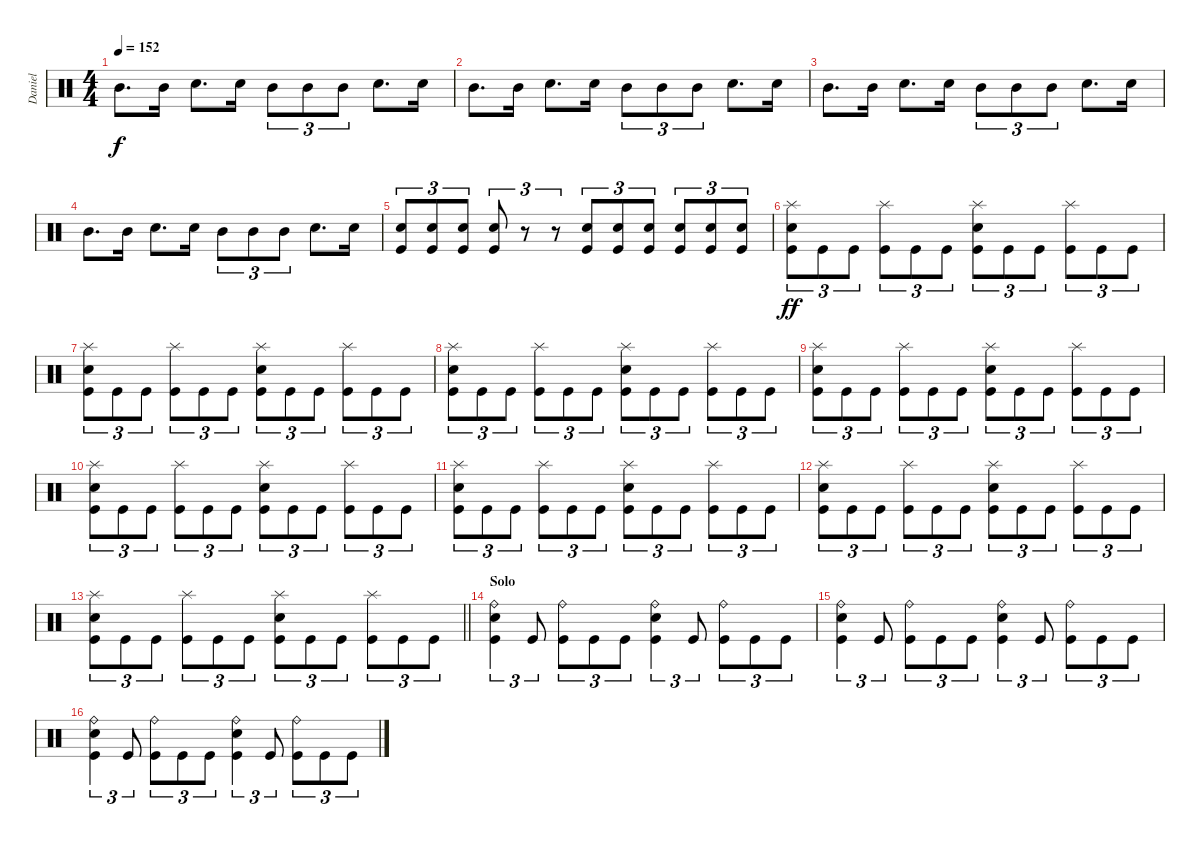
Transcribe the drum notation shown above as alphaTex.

\track ("Daniel" "Daniel") {instrument percussion}
\staff {score}
\articulation defaults
\ts (4 4)
\tempo 152
\clef neutral
\ks c "Mid Tom (hit)".8{d dy f} "Mid Tom (hit)".16 "Snare (hit) 2".8{d} "Snare (hit) 2".16 "Mid Tom (hit)".8{tu (3 2)} "Mid Tom (hit)".8{tu (3 2)} "Mid Tom (hit)".8{tu (3 2)} "Snare (hit) 2".8{d} "Snare (hit) 2".16
|
"Mid Tom (hit)".8{d} "Mid Tom (hit)".16 "Snare (hit) 2".8{d} "Snare (hit) 2".16 "Mid Tom (hit)".8{tu (3 2)} "Mid Tom (hit)".8{tu (3 2)} "Mid Tom (hit)".8{tu (3 2)} "Snare (hit) 2".8{d} "Snare (hit) 2".16 |
"Mid Tom (hit)".8{d} "Mid Tom (hit)".16 "Snare (hit) 2".8{d} "Snare (hit) 2".16 "Mid Tom (hit)".8{tu (3 2)} "Mid Tom (hit)".8{tu (3 2)} "Mid Tom (hit)".8{tu (3 2)} "Snare (hit) 2".8{d} "Snare (hit) 2".16 |
"Mid Tom (hit)".8{d} "Mid Tom (hit)".16 "Snare (hit) 2".8{d} "Snare (hit) 2".16 "Mid Tom (hit)".8{tu (3 2)} "Mid Tom (hit)".8{tu (3 2)} "Mid Tom (hit)".8{tu (3 2)} "Snare (hit) 2".8{d} "Snare (hit) 2".16 |
("Kick (hit)" "Snare (hit) 2").8{tu (3 2)} ("Kick (hit)" "Snare (hit) 2").8{tu (3 2)} ("Kick (hit)" "Snare (hit) 2").8{tu (3 2)} ("Kick (hit)" "Snare (hit) 2").8{tu (3 2)} r.8{tu (3 2)} r.8{tu (3 2)} ("Kick (hit)" "Snare (hit) 2").8{tu (3 2)} ("Kick (hit)" "Snare (hit) 2").8{tu (3 2)} ("Kick (hit)" "Snare (hit) 2").8{tu (3 2)} ("Kick (hit)" "Snare (hit) 2").8{tu (3 2)} ("Kick (hit)" "Snare (hit) 2").8{tu (3 2)} ("Kick (hit)" "Snare (hit) 2").8{tu (3 2)} |
("Kick (hit)" "Snare (hit) 2" "Splash (hit)").8{tu (3 2) dy ff} "Kick (hit)".8{tu (3 2)} "Kick (hit)".8{tu (3 2)} ("Kick (hit)" "Splash (hit)").8{tu (3 2)} "Kick (hit)".8{tu (3 2)} "Kick (hit)".8{tu (3 2)} ("Kick (hit)" "Snare (hit) 2" "Splash (hit)").8{tu (3 2)} "Kick (hit)".8{tu (3 2)} "Kick (hit)".8{tu (3 2)} ("Kick (hit)" "Splash (hit)").8{tu (3 2)} "Kick (hit)".8{tu (3 2)} "Kick (hit)".8{tu (3 2)} |
("Kick (hit)" "Snare (hit) 2" "Splash (hit)").8{tu (3 2)} "Kick (hit)".8{tu (3 2)} "Kick (hit)".8{tu (3 2)} ("Kick (hit)" "Splash (hit)").8{tu (3 2)} "Kick (hit)".8{tu (3 2)} "Kick (hit)".8{tu (3 2)} ("Kick (hit)" "Snare (hit) 2" "Splash (hit)").8{tu (3 2)} "Kick (hit)".8{tu (3 2)} "Kick (hit)".8{tu (3 2)} ("Kick (hit)" "Splash (hit)").8{tu (3 2)} "Kick (hit)".8{tu (3 2)} "Kick (hit)".8{tu (3 2)} |
("Kick (hit)" "Snare (hit) 2" "Splash (hit)").8{tu (3 2)} "Kick (hit)".8{tu (3 2)} "Kick (hit)".8{tu (3 2)} ("Kick (hit)" "Splash (hit)").8{tu (3 2)} "Kick (hit)".8{tu (3 2)} "Kick (hit)".8{tu (3 2)} ("Kick (hit)" "Snare (hit) 2" "Splash (hit)").8{tu (3 2)} "Kick (hit)".8{tu (3 2)} "Kick (hit)".8{tu (3 2)} ("Kick (hit)" "Splash (hit)").8{tu (3 2)} "Kick (hit)".8{tu (3 2)} "Kick (hit)".8{tu (3 2)} |
("Kick (hit)" "Snare (hit) 2" "Splash (hit)").8{tu (3 2)} "Kick (hit)".8{tu (3 2)} "Kick (hit)".8{tu (3 2)} ("Kick (hit)" "Splash (hit)").8{tu (3 2)} "Kick (hit)".8{tu (3 2)} "Kick (hit)".8{tu (3 2)} ("Kick (hit)" "Snare (hit) 2" "Splash (hit)").8{tu (3 2)} "Kick (hit)".8{tu (3 2)} "Kick (hit)".8{tu (3 2)} ("Kick (hit)" "Splash (hit)").8{tu (3 2)} "Kick (hit)".8{tu (3 2)} "Kick (hit)".8{tu (3 2)} |
("Kick (hit)" "Snare (hit) 2" "Splash (hit)").8{tu (3 2)} "Kick (hit)".8{tu (3 2)} "Kick (hit)".8{tu (3 2)} ("Kick (hit)" "Splash (hit)").8{tu (3 2)} "Kick (hit)".8{tu (3 2)} "Kick (hit)".8{tu (3 2)} ("Kick (hit)" "Snare (hit) 2" "Splash (hit)").8{tu (3 2)} "Kick (hit)".8{tu (3 2)} "Kick (hit)".8{tu (3 2)} ("Kick (hit)" "Splash (hit)").8{tu (3 2)} "Kick (hit)".8{tu (3 2)} "Kick (hit)".8{tu (3 2)} |
("Kick (hit)" "Snare (hit) 2" "Splash (hit)").8{tu (3 2)} "Kick (hit)".8{tu (3 2)} "Kick (hit)".8{tu (3 2)} ("Kick (hit)" "Splash (hit)").8{tu (3 2)} "Kick (hit)".8{tu (3 2)} "Kick (hit)".8{tu (3 2)} ("Kick (hit)" "Snare (hit) 2" "Splash (hit)").8{tu (3 2)} "Kick (hit)".8{tu (3 2)} "Kick (hit)".8{tu (3 2)} ("Kick (hit)" "Splash (hit)").8{tu (3 2)} "Kick (hit)".8{tu (3 2)} "Kick (hit)".8{tu (3 2)} |
("Kick (hit)" "Snare (hit) 2" "Splash (hit)").8{tu (3 2)} "Kick (hit)".8{tu (3 2)} "Kick (hit)".8{tu (3 2)} ("Kick (hit)" "Splash (hit)").8{tu (3 2)} "Kick (hit)".8{tu (3 2)} "Kick (hit)".8{tu (3 2)} ("Kick (hit)" "Snare (hit) 2" "Splash (hit)").8{tu (3 2)} "Kick (hit)".8{tu (3 2)} "Kick (hit)".8{tu (3 2)} ("Kick (hit)" "Splash (hit)").8{tu (3 2)} "Kick (hit)".8{tu (3 2)} "Kick (hit)".8{tu (3 2)} |
\barLineRight lightlight
("Kick (hit)" "Snare (hit) 2" "Splash (hit)").8{tu (3 2)} "Kick (hit)".8{tu (3 2)} "Kick (hit)".8{tu (3 2)} ("Kick (hit)" "Splash (hit)").8{tu (3 2)} "Kick (hit)".8{tu (3 2)} "Kick (hit)".8{tu (3 2)} ("Kick (hit)" "Snare (hit) 2" "Splash (hit)").8{tu (3 2)} "Kick (hit)".8{tu (3 2)} "Kick (hit)".8{tu (3 2)} ("Kick (hit)" "Splash (hit)").8{tu (3 2)} "Kick (hit)".8{tu (3 2)} "Kick (hit)".8{tu (3 2)} |
\section ("" "Solo")
("Kick (hit)" "Snare (hit) 2" "Ride (bell)").4{tu (3 2)} "Kick (hit)".8{tu (3 2)} ("Kick (hit)" "Ride (bell)").8{tu (3 2)} "Kick (hit)".8{tu (3 2)} "Kick (hit)".8{tu (3 2)} ("Kick (hit)" "Snare (hit) 2" "Ride (bell)").4{tu (3 2)} "Kick (hit)".8{tu (3 2)} ("Kick (hit)" "Ride (bell)").8{tu (3 2)} "Kick (hit)".8{tu (3 2)} "Kick (hit)".8{tu (3 2)} |
("Kick (hit)" "Snare (hit) 2" "Ride (bell)").4{tu (3 2)} "Kick (hit)".8{tu (3 2)} ("Kick (hit)" "Ride (bell)").8{tu (3 2)} "Kick (hit)".8{tu (3 2)} "Kick (hit)".8{tu (3 2)} ("Kick (hit)" "Snare (hit) 2" "Ride (bell)").4{tu (3 2)} "Kick (hit)".8{tu (3 2)} ("Kick (hit)" "Ride (bell)").8{tu (3 2)} "Kick (hit)".8{tu (3 2)} "Kick (hit)".8{tu (3 2)} |
("Kick (hit)" "Snare (hit) 2" "Ride (bell)").4{tu (3 2)} "Kick (hit)".8{tu (3 2)} ("Kick (hit)" "Ride (bell)").8{tu (3 2)} "Kick (hit)".8{tu (3 2)} "Kick (hit)".8{tu (3 2)} ("Kick (hit)" "Snare (hit) 2" "Ride (bell)").4{tu (3 2)} "Kick (hit)".8{tu (3 2)} ("Kick (hit)" "Ride (bell)").8{tu (3 2)} "Kick (hit)".8{tu (3 2)} "Kick (hit)".8{tu (3 2)}
